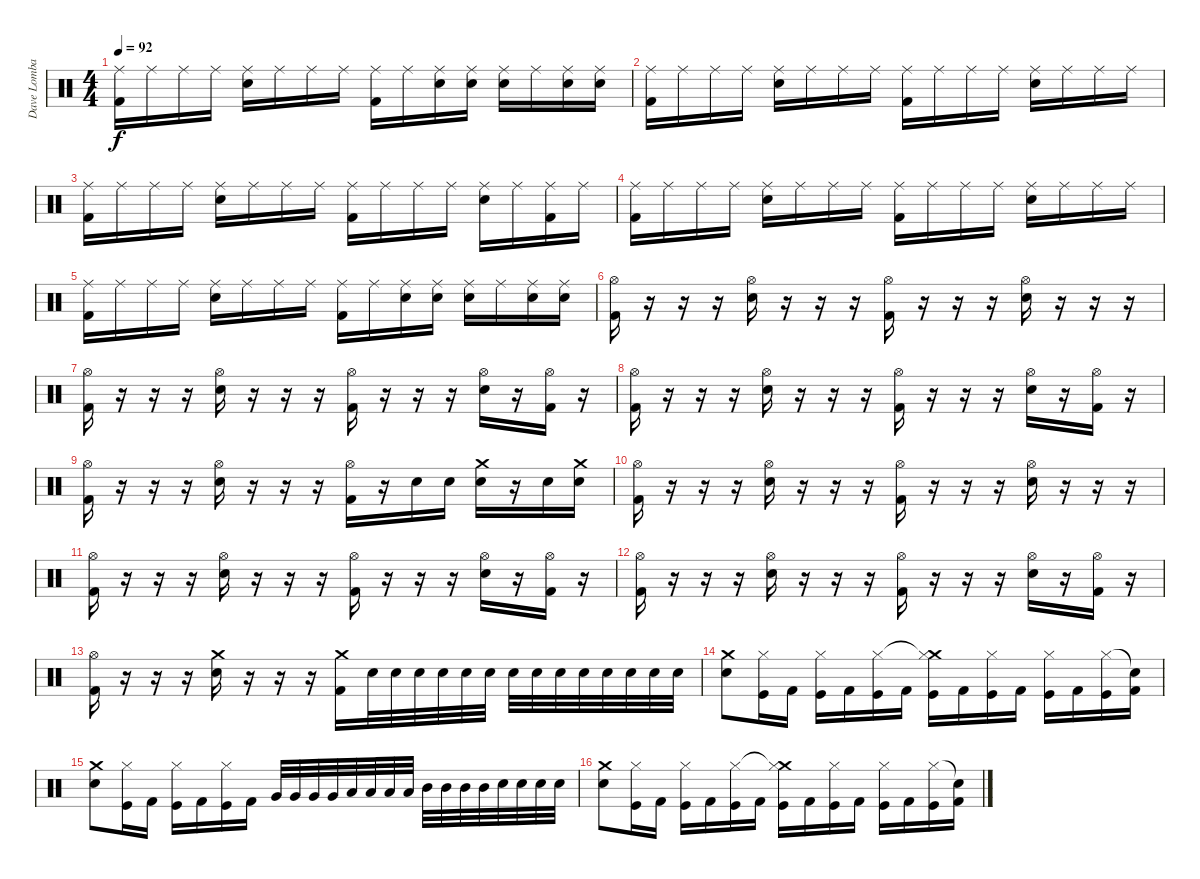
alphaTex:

\track ("Dave Lombardo" "Dave Lomba") {instrument percussion}
\staff {score}
\articulation defaults
\ts (4 4)
\tempo 92
\clef neutral
\ks c
("Kick (hit) 2" "Ride (middle)").16{dy f} "Ride (middle)".16 "Ride (middle)".16 "Ride (middle)".16 ("Electric Snare (hit)" "Ride (middle)").16 "Ride (middle)".16 "Ride (middle)".16 "Ride (middle)".16 ("Kick (hit) 2" "Ride (middle)").16 "Ride (middle)".16 ("Snare (hit) 2" "Ride (middle)").16 ("Snare (hit) 2" "Ride (middle)").16 ("Electric Snare (hit)" "Ride (middle)").16 "Ride (middle)".16 ("Electric Snare (hit)" "Ride (middle)").16 ("Electric Snare (hit)" "Ride (middle)").16 |
("Kick (hit) 2" "Ride (middle)").16 "Ride (middle)".16 "Ride (middle)".16 "Ride (middle)".16 ("Electric Snare (hit)" "Ride (middle)").16 "Ride (middle)".16 "Ride (middle)".16 "Ride (middle)".16 ("Kick (hit) 2" "Ride (middle)").16 "Ride (middle)".16 "Ride (middle)".16 "Ride (middle)".16 ("Electric Snare (hit)" "Ride (middle)").16 "Ride (middle)".16 "Ride (middle)".16 "Ride (middle)".16 |
("Kick (hit) 2" "Ride (middle)").16 "Ride (middle)".16 "Ride (middle)".16 "Ride (middle)".16 ("Electric Snare (hit)" "Ride (middle)").16 "Ride (middle)".16 "Ride (middle)".16 "Ride (middle)".16 ("Kick (hit) 2" "Ride (middle)").16 "Ride (middle)".16 "Ride (middle)".16 "Ride (middle)".16 ("Electric Snare (hit)" "Ride (middle)").16 "Ride (middle)".16 ("Kick (hit) 2" "Ride (middle)").16 "Ride (middle)".16 |
("Kick (hit) 2" "Ride (middle)").16 "Ride (middle)".16 "Ride (middle)".16 "Ride (middle)".16 ("Electric Snare (hit)" "Ride (middle)").16 "Ride (middle)".16 "Ride (middle)".16 "Ride (middle)".16 ("Kick (hit) 2" "Ride (middle)").16 "Ride (middle)".16 "Ride (middle)".16 "Ride (middle)".16 ("Electric Snare (hit)" "Ride (middle)").16 "Ride (middle)".16 "Ride (middle)".16 "Ride (middle)".16 |
("Kick (hit) 2" "Ride (middle)").16 "Ride (middle)".16 "Ride (middle)".16 "Ride (middle)".16 ("Electric Snare (hit)" "Ride (middle)").16 "Ride (middle)".16 "Ride (middle)".16 "Ride (middle)".16 ("Kick (hit) 2" "Ride (middle)").16 "Ride (middle)".16 ("Snare (hit) 2" "Ride (middle)").16 ("Snare (hit) 2" "Ride (middle)").16 ("Electric Snare (hit)" "Ride (middle)").16 "Ride (middle)".16 ("Electric Snare (hit)" "Ride (middle)").16 ("Electric Snare (hit)" "Ride (middle)").16 |
("Kick (hit) 2" "Hi-Hat (open)").16 r.16 r.16 r.16 ("Electric Snare (hit)" "Hi-Hat (open)").16 r.16 r.16 r.16 ("Kick (hit) 2" "Hi-Hat (open)").16 r.16 r.16 r.16 ("Electric Snare (hit)" "Hi-Hat (open)").16 r.16 r.16 r.16 |
("Kick (hit) 2" "Hi-Hat (open)").16 r.16 r.16 r.16 ("Electric Snare (hit)" "Hi-Hat (open)").16 r.16 r.16 r.16 ("Kick (hit) 2" "Hi-Hat (open)").16 r.16 r.16 r.16 ("Electric Snare (hit)" "Hi-Hat (open)").16 r.16 ("Kick (hit) 2" "Hi-Hat (open)").16 r.16 |
("Kick (hit) 2" "Hi-Hat (open)").16 r.16 r.16 r.16 ("Electric Snare (hit)" "Hi-Hat (open)").16 r.16 r.16 r.16 ("Kick (hit) 2" "Hi-Hat (open)").16 r.16 r.16 r.16 ("Electric Snare (hit)" "Hi-Hat (open)").16 r.16 ("Kick (hit) 2" "Hi-Hat (open)").16 r.16 |
("Kick (hit) 2" "Hi-Hat (open)").16 r.16 r.16 r.16 ("Electric Snare (hit)" "Hi-Hat (open)").16 r.16 r.16 r.16 ("Kick (hit) 2" "Hi-Hat (open)").16 r.16 "Snare (hit) 2".16 "Snare (hit) 2".16 ("Electric Snare (hit)" "Crash medium (hit)").16 r.16 "Electric Snare (hit)".16 ("Electric Snare (hit)" "Crash medium (hit)").16 |
("Kick (hit) 2" "Hi-Hat (open)").16 r.16 r.16 r.16 ("Electric Snare (hit)" "Hi-Hat (open)").16 r.16 r.16 r.16 ("Kick (hit) 2" "Hi-Hat (open)").16 r.16 r.16 r.16 ("Electric Snare (hit)" "Hi-Hat (open)").16 r.16 r.16 r.16 |
("Kick (hit) 2" "Hi-Hat (open)").16 r.16 r.16 r.16 ("Electric Snare (hit)" "Hi-Hat (open)").16 r.16 r.16 r.16 ("Kick (hit) 2" "Hi-Hat (open)").16 r.16 r.16 r.16 ("Electric Snare (hit)" "Hi-Hat (open)").16 r.16 ("Kick (hit) 2" "Hi-Hat (open)").16 r.16 |
("Kick (hit) 2" "Hi-Hat (open)").16 r.16 r.16 r.16 ("Electric Snare (hit)" "Hi-Hat (open)").16 r.16 r.16 r.16 ("Kick (hit) 2" "Hi-Hat (open)").16 r.16 r.16 r.16 ("Electric Snare (hit)" "Hi-Hat (open)").16 r.16 ("Kick (hit) 2" "Hi-Hat (open)").16 r.16 |
("Kick (hit) 2" "Hi-Hat (open)").16 r.16 r.16 r.16 ("Electric Snare (hit)" "Crash medium (hit)").16 r.16 r.16 r.16 ("Kick (hit) 2" "Crash medium (hit)").16 "Electric Snare (hit)".32 "Electric Snare (hit)".32 "Electric Snare (hit)".32 "Electric Snare (hit)".32 "Electric Snare (hit)".32 "Electric Snare (hit)".32 "Electric Snare (hit)".32 "Electric Snare (hit)".32 "Snare (hit) 2".32 "Snare (hit) 2".32 "Snare (hit) 2".32 "Snare (hit) 2".32 "Snare (hit) 2".32 "Snare (hit) 2".32 |
("Electric Snare (hit)" "Crash medium (hit)").8 ("Kick (hit)" "Hi-Hat (closed)").16 "Kick (hit) 2".16 ("Kick (hit)" "Hi-Hat (closed)").16 "Kick (hit) 2".16 ("Kick (hit)" "Hi-Hat (closed)").16 "Kick (hit) 2".16 ("Kick (hit)" "Crash medium (hit)"{t} "Hi-Hat (closed)").16 "Kick (hit) 2".16 ("Kick (hit)" "Hi-Hat (closed)").16 "Kick (hit) 2".16 ("Kick (hit)" "Hi-Hat (closed)").16 "Kick (hit) 2".16 ("Kick (hit)" "Hi-Hat (closed)").16 ("Kick (hit) 2" "Snare (hit)"{t}).16 |
("Electric Snare (hit)" "Crash medium (hit)").8 ("Kick (hit)" "Hi-Hat (closed)").16 "Kick (hit) 2".16 ("Kick (hit)" "Hi-Hat (closed)").16 "Kick (hit) 2".16 ("Kick (hit)" "Hi-Hat (closed)").16 "Kick (hit) 2".16 "Very Low Tom (hit)".32 "Very Low Tom (hit)".32 "Very Low Tom (hit)".32 "Very Low Tom (hit)".32 "Low Tom (hit)".32 "Low Tom (hit)".32 "Low Tom (hit)".32 "Low Tom (hit)".32 "Mid Tom (hit)".32 "Mid Tom (hit)".32 "Mid Tom (hit)".32 "Mid Tom (hit)".32 "Snare (hit) 2".32 "Snare (hit) 2".32 "Snare (hit) 2".32 "Snare (hit) 2".32 |
("Electric Snare (hit)" "Crash medium (hit)").8 ("Kick (hit)" "Hi-Hat (closed)").16 "Kick (hit) 2".16 ("Kick (hit)" "Hi-Hat (closed)").16 "Kick (hit) 2".16 ("Kick (hit)" "Hi-Hat (closed)").16 "Kick (hit) 2".16 ("Kick (hit)" "Crash medium (hit)"{t} "Hi-Hat (closed)").16 "Kick (hit) 2".16 ("Kick (hit)" "Hi-Hat (closed)").16 "Kick (hit) 2".16 ("Kick (hit)" "Hi-Hat (closed)").16 "Kick (hit) 2".16 ("Kick (hit)" "Hi-Hat (closed)").16 ("Kick (hit) 2" "Snare (hit)"{t}).16
